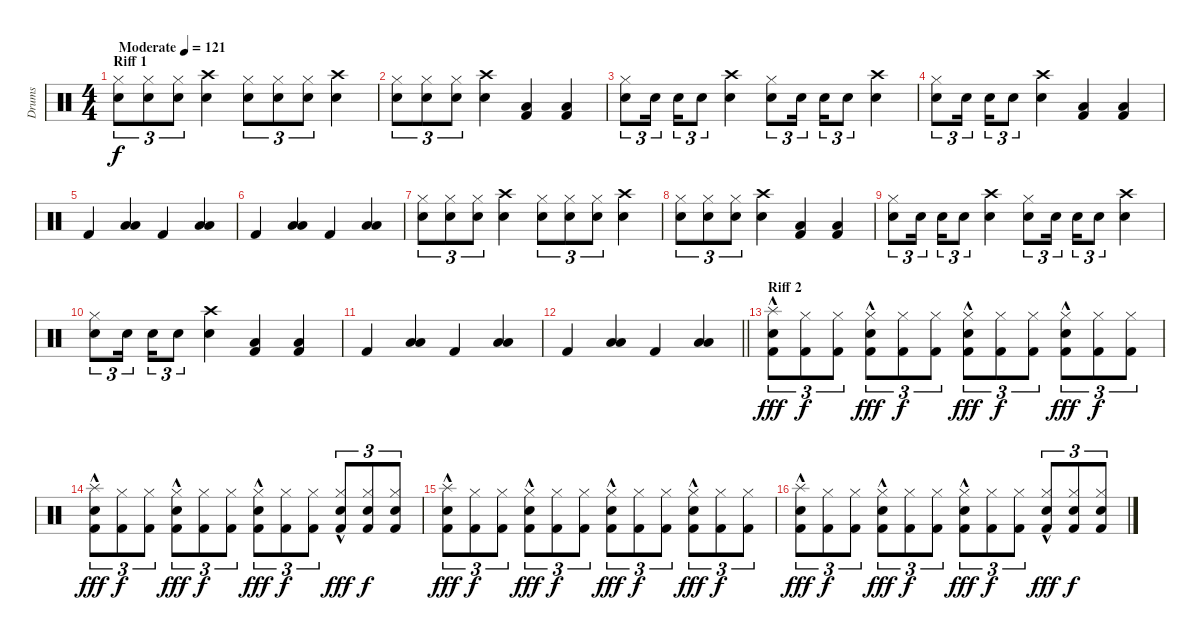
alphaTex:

\track ("Drums" "Drums") {instrument percussion}
\staff {score}
\articulation defaults
\ts (4 4)
\section ("" "Riff 1")
\tempo (121 "Moderate")
\clef neutral
\ks c
("Snare (hit) 2" "Hi-Hat (closed)").8{tu (3 2) dy f} ("Snare (hit) 2" "Hi-Hat (closed)").8{tu (3 2)} ("Snare (hit) 2" "Hi-Hat (closed)").8{tu (3 2)} ("Snare (hit) 2" "Crash high (hit)").4 ("Snare (hit) 2" "Hi-Hat (closed)").8{tu (3 2)} ("Snare (hit) 2" "Hi-Hat (closed)").8{tu (3 2)} ("Snare (hit) 2" "Hi-Hat (closed)").8{tu (3 2)} ("Snare (hit) 2" "Crash high (hit)").4 |
("Snare (hit) 2" "Hi-Hat (closed)").8{tu (3 2)} ("Snare (hit) 2" "Hi-Hat (closed)").8{tu (3 2)} ("Snare (hit) 2" "Hi-Hat (closed)").8{tu (3 2)} ("Snare (hit) 2" "Crash high (hit)").4 ("Low Tom (hit)" "Kick (hit) 2").4 ("Low Tom (hit)" "Kick (hit) 2").4 |
("Snare (hit) 2" "Hi-Hat (closed)").8{tu (3 2)} "Snare (hit) 2".16{tu (3 2) beam splitsecondary} "Snare (hit) 2".16{tu (3 2)} "Snare (hit) 2".8{tu (3 2)} ("Snare (hit) 2" "Crash high (hit)").4 ("Snare (hit) 2" "Hi-Hat (closed)").8{tu (3 2)} "Snare (hit) 2".16{tu (3 2) beam splitsecondary} "Snare (hit) 2".16{tu (3 2)} "Snare (hit) 2".8{tu (3 2)} ("Snare (hit) 2" "Crash high (hit)").4 |
("Snare (hit) 2" "Hi-Hat (closed)").8{tu (3 2)} "Snare (hit) 2".16{tu (3 2) beam splitsecondary} "Snare (hit) 2".16{tu (3 2)} "Snare (hit) 2".8{tu (3 2)} ("Snare (hit) 2" "Crash high (hit)").4 ("Low Tom (hit)" "Kick (hit) 2").4 ("Low Tom (hit)" "Kick (hit) 2").4 |
"Kick (hit) 2".4 ("Low Tom (hit)" "Low Tom (hit)").4 "Kick (hit) 2".4 ("Low Tom (hit)" "Low Tom (hit)").4 |
"Kick (hit) 2".4 ("Low Tom (hit)" "Low Tom (hit)").4 "Kick (hit) 2".4 ("Low Tom (hit)" "Low Tom (hit)").4 |
("Snare (hit) 2" "Hi-Hat (closed)").8{tu (3 2)} ("Snare (hit) 2" "Hi-Hat (closed)").8{tu (3 2)} ("Snare (hit) 2" "Hi-Hat (closed)").8{tu (3 2)} ("Snare (hit) 2" "Crash high (hit)").4 ("Snare (hit) 2" "Hi-Hat (closed)").8{tu (3 2)} ("Snare (hit) 2" "Hi-Hat (closed)").8{tu (3 2)} ("Snare (hit) 2" "Hi-Hat (closed)").8{tu (3 2)} ("Snare (hit) 2" "Crash high (hit)").4 |
("Snare (hit) 2" "Hi-Hat (closed)").8{tu (3 2)} ("Snare (hit) 2" "Hi-Hat (closed)").8{tu (3 2)} ("Snare (hit) 2" "Hi-Hat (closed)").8{tu (3 2)} ("Snare (hit) 2" "Crash high (hit)").4 ("Low Tom (hit)" "Kick (hit) 2").4 ("Low Tom (hit)" "Kick (hit) 2").4 |
("Snare (hit) 2" "Hi-Hat (closed)").8{tu (3 2)} "Snare (hit) 2".16{tu (3 2) beam splitsecondary} "Snare (hit) 2".16{tu (3 2)} "Snare (hit) 2".8{tu (3 2)} ("Snare (hit) 2" "Crash high (hit)").4 ("Snare (hit) 2" "Hi-Hat (closed)").8{tu (3 2)} "Snare (hit) 2".16{tu (3 2) beam splitsecondary} "Snare (hit) 2".16{tu (3 2)} "Snare (hit) 2".8{tu (3 2)} ("Snare (hit) 2" "Crash high (hit)").4 |
("Snare (hit) 2" "Hi-Hat (closed)").8{tu (3 2)} "Snare (hit) 2".16{tu (3 2) beam splitsecondary} "Snare (hit) 2".16{tu (3 2)} "Snare (hit) 2".8{tu (3 2)} ("Snare (hit) 2" "Crash high (hit)").4 ("Low Tom (hit)" "Kick (hit) 2").4 ("Low Tom (hit)" "Kick (hit) 2").4 |
"Kick (hit) 2".4 ("Low Tom (hit)" "Low Tom (hit)").4 "Kick (hit) 2".4 ("Low Tom (hit)" "Low Tom (hit)").4 |
\barLineRight lightlight "Kick (hit) 2".4
("Low Tom (hit)" "Low Tom (hit)").4 "Kick (hit) 2".4 ("Low Tom (hit)" "Low Tom (hit)").4 |
\section ("" "Riff 2")
("Kick (hit) 2" "Snare (hit) 2"{hac} "Splash (hit)"{hac}).8{tu (3 2) dy fff} ("Kick (hit) 2" "Hi-Hat (closed)").8{tu (3 2) dy f} ("Kick (hit) 2" "Hi-Hat (closed)").8{tu (3 2)} ("Kick (hit) 2" "Snare (hit) 2"{hac} "Hi-Hat (closed)"{hac}).8{tu (3 2) dy fff} ("Kick (hit) 2" "Hi-Hat (closed)").8{tu (3 2) dy f} ("Kick (hit) 2" "Hi-Hat (closed)").8{tu (3 2)} ("Kick (hit) 2" "Snare (hit) 2"{hac} "Hi-Hat (closed)"{hac}).8{tu (3 2) dy fff} ("Kick (hit) 2" "Hi-Hat (closed)").8{tu (3 2) dy f} ("Kick (hit) 2" "Hi-Hat (closed)").8{tu (3 2)} ("Kick (hit) 2" "Snare (hit) 2"{hac} "Hi-Hat (closed)"{hac}).8{tu (3 2) dy fff} ("Kick (hit) 2" "Hi-Hat (closed)").8{tu (3 2) dy f} ("Kick (hit) 2" "Hi-Hat (closed)").8{tu (3 2)} |
("Kick (hit) 2" "Snare (hit) 2"{hac} "Splash (hit)"{hac}).8{tu (3 2) dy fff} ("Kick (hit) 2" "Hi-Hat (closed)").8{tu (3 2) dy f} ("Kick (hit) 2" "Hi-Hat (closed)").8{tu (3 2)} ("Kick (hit) 2" "Snare (hit) 2"{hac} "Hi-Hat (closed)"{hac}).8{tu (3 2) dy fff} ("Kick (hit) 2" "Hi-Hat (closed)").8{tu (3 2) dy f} ("Kick (hit) 2" "Hi-Hat (closed)").8{tu (3 2)} ("Kick (hit) 2" "Snare (hit) 2"{hac} "Hi-Hat (closed)"{hac}).8{tu (3 2) dy fff} ("Kick (hit) 2" "Hi-Hat (closed)").8{tu (3 2) dy f} ("Kick (hit) 2" "Hi-Hat (closed)").8{tu (3 2)} ("Kick (hit) 2" "Snare (hit) 2"{hac} "Hi-Hat (closed)"{hac}).8{tu (3 2) dy fff} ("Kick (hit) 2" "Snare (hit) 2" "Hi-Hat (closed)").8{tu (3 2) dy f} ("Kick (hit) 2" "Snare (hit) 2" "Hi-Hat (closed)").8{tu (3 2)} |
("Kick (hit) 2" "Snare (hit) 2"{hac} "Splash (hit)"{hac}).8{tu (3 2) dy fff} ("Kick (hit) 2" "Hi-Hat (closed)").8{tu (3 2) dy f} ("Kick (hit) 2" "Hi-Hat (closed)").8{tu (3 2)} ("Kick (hit) 2" "Snare (hit) 2"{hac} "Hi-Hat (closed)"{hac}).8{tu (3 2) dy fff} ("Kick (hit) 2" "Hi-Hat (closed)").8{tu (3 2) dy f} ("Kick (hit) 2" "Hi-Hat (closed)").8{tu (3 2)} ("Kick (hit) 2" "Snare (hit) 2"{hac} "Hi-Hat (closed)"{hac}).8{tu (3 2) dy fff} ("Kick (hit) 2" "Hi-Hat (closed)").8{tu (3 2) dy f} ("Kick (hit) 2" "Hi-Hat (closed)").8{tu (3 2)} ("Kick (hit) 2" "Snare (hit) 2"{hac} "Hi-Hat (closed)"{hac}).8{tu (3 2) dy fff} ("Kick (hit) 2" "Hi-Hat (closed)").8{tu (3 2) dy f} ("Kick (hit) 2" "Hi-Hat (closed)").8{tu (3 2)} |
("Kick (hit) 2" "Snare (hit) 2"{hac} "Splash (hit)"{hac}).8{tu (3 2) dy fff} ("Kick (hit) 2" "Hi-Hat (closed)").8{tu (3 2) dy f} ("Kick (hit) 2" "Hi-Hat (closed)").8{tu (3 2)} ("Kick (hit) 2" "Snare (hit) 2"{hac} "Hi-Hat (closed)"{hac}).8{tu (3 2) dy fff} ("Kick (hit) 2" "Hi-Hat (closed)").8{tu (3 2) dy f} ("Kick (hit) 2" "Hi-Hat (closed)").8{tu (3 2)} ("Kick (hit) 2" "Snare (hit) 2"{hac} "Hi-Hat (closed)"{hac}).8{tu (3 2) dy fff} ("Kick (hit) 2" "Hi-Hat (closed)").8{tu (3 2) dy f} ("Kick (hit) 2" "Hi-Hat (closed)").8{tu (3 2)} ("Kick (hit) 2" "Snare (hit) 2"{hac} "Hi-Hat (closed)"{hac}).8{tu (3 2) dy fff} ("Kick (hit) 2" "Snare (hit) 2" "Hi-Hat (closed)").8{tu (3 2) dy f} ("Kick (hit) 2" "Snare (hit) 2" "Hi-Hat (closed)").8{tu (3 2)}
